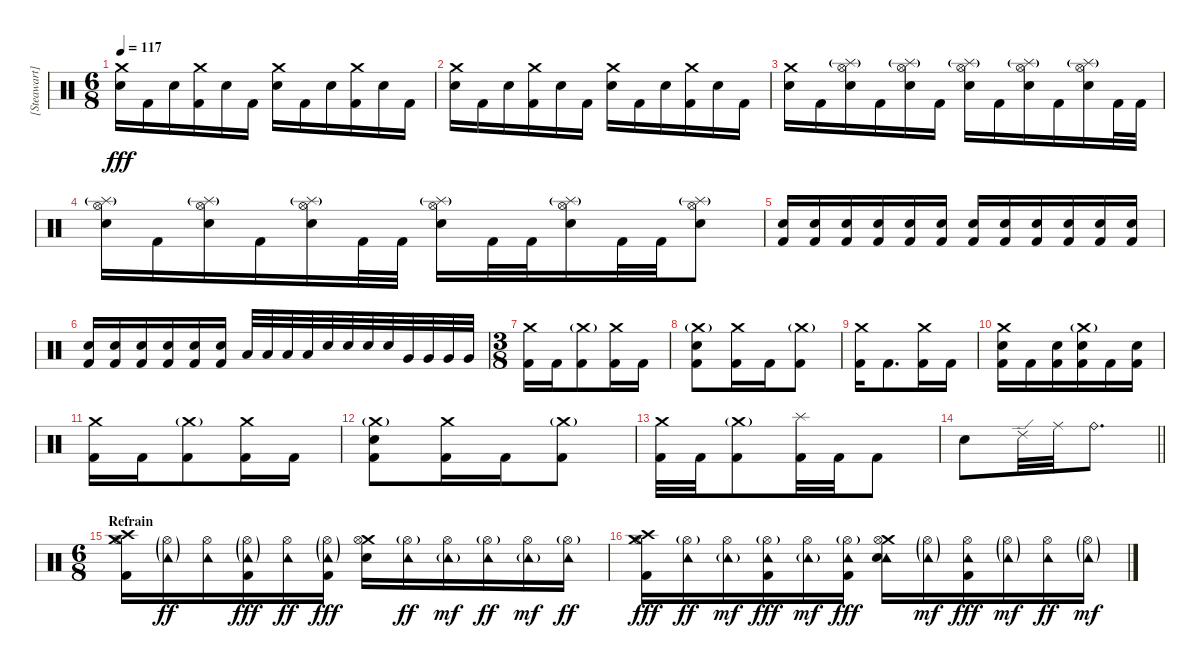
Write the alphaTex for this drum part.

\track ("[Steawart] Drums" "[Steawart]") {instrument percussion}
\staff {score}
\articulation defaults
\ts (6 8)
\tempo 117
\clef neutral
\ks c
("Crash medium (hit)" "Electric Snare (hit)").16{dy fff} "Kick (hit) 2".16 "Electric Snare (hit)".16 ("Crash medium (hit)" "Kick (hit) 2").16 "Electric Snare (hit)".16 "Kick (hit) 2".16 ("Crash medium (hit)" "Electric Snare (hit)").16 "Kick (hit) 2".16 "Electric Snare (hit)".16 ("Crash medium (hit)" "Kick (hit) 2").16 "Electric Snare (hit)".16 "Kick (hit) 2".16 |
("Crash medium (hit)" "Electric Snare (hit)").16 "Kick (hit) 2".16 "Electric Snare (hit)".16 ("Crash medium (hit)" "Kick (hit) 2").16 "Electric Snare (hit)".16 "Kick (hit) 2".16 ("Crash medium (hit)" "Electric Snare (hit)").16 "Kick (hit) 2".16 "Electric Snare (hit)".16 ("Crash medium (hit)" "Kick (hit) 2").16 "Electric Snare (hit)".16 "Kick (hit) 2".16 |
("Crash medium (hit)" "Electric Snare (hit)").16 "Kick (hit) 2".16 ("Hi-Hat (open)" "Splash (hit)"{g} "Electric Snare (hit)").16 "Kick (hit) 2".16 ("Hi-Hat (open)" "Splash (hit)"{g} "Electric Snare (hit)").16 "Kick (hit) 2".16 ("Hi-Hat (open)" "Splash (hit)"{g} "Electric Snare (hit)").16 "Kick (hit) 2".16 ("Hi-Hat (open)" "Splash (hit)"{g} "Electric Snare (hit)").16 "Kick (hit) 2".16 ("Hi-Hat (open)" "Splash (hit)"{g} "Electric Snare (hit)").16 "Kick (hit) 2".32 "Kick (hit) 2".32 |
("Hi-Hat (open)" "Splash (hit)"{g} "Electric Snare (hit)").16 "Kick (hit) 2".16 ("Hi-Hat (open)" "Splash (hit)"{g} "Electric Snare (hit)").16 "Kick (hit) 2".16 ("Hi-Hat (open)" "Splash (hit)"{g} "Electric Snare (hit)").16 "Kick (hit) 2".32 "Kick (hit) 2".32 ("Hi-Hat (open)" "Splash (hit)"{g} "Electric Snare (hit)").16 "Kick (hit) 2".32 "Kick (hit) 2".32 ("Hi-Hat (open)" "Splash (hit)"{g} "Electric Snare (hit)").16 "Kick (hit) 2".32 "Kick (hit) 2".32 ("Hi-Hat (open)" "Splash (hit)"{g} "Electric Snare (hit)").8 |
("Electric Snare (hit)" "Kick (hit) 2").16 ("Electric Snare (hit)" "Kick (hit) 2").16 ("Electric Snare (hit)" "Kick (hit) 2").16 ("Electric Snare (hit)" "Kick (hit) 2").16 ("Electric Snare (hit)" "Kick (hit) 2").16 ("Electric Snare (hit)" "Kick (hit) 2").16 ("Electric Snare (hit)" "Kick (hit) 2").16 ("Electric Snare (hit)" "Kick (hit) 2").16 ("Electric Snare (hit)" "Kick (hit) 2").16 ("Electric Snare (hit)" "Kick (hit) 2").16 ("Electric Snare (hit)" "Kick (hit) 2").16 ("Electric Snare (hit)" "Kick (hit) 2").16 |
("Electric Snare (hit)" "Kick (hit) 2").16 ("Electric Snare (hit)" "Kick (hit) 2").16 ("Electric Snare (hit)" "Kick (hit) 2").16 ("Electric Snare (hit)" "Kick (hit) 2").16 ("Electric Snare (hit)" "Kick (hit) 2").16 ("Electric Snare (hit)" "Kick (hit) 2").16 "Low Tom (hit)".32 "Low Tom (hit)".32 "Low Tom (hit)".32 "Low Tom (hit)".32 "Electric Snare (hit)".32 "Electric Snare (hit)".32 "Electric Snare (hit)".32 "Electric Snare (hit)".32 "Very Low Tom (hit)".32 "Very Low Tom (hit)".32 "Very Low Tom (hit)".32 "Very Low Tom (hit)".32 |
\ts (3 8)
("Crash medium (hit)" "Kick (hit) 2").16 "Kick (hit) 2".16 ("Crash medium (hit)"{g} "Kick (hit) 2").8 ("Crash medium (hit)" "Kick (hit) 2").16 "Kick (hit) 2".16 |
("Crash medium (hit)"{g} "Electric Snare (hit)" "Kick (hit) 2").8 ("Crash medium (hit)" "Kick (hit) 2").16 "Kick (hit) 2".16 ("Crash medium (hit)"{g} "Kick (hit) 2").8 |
("Crash medium (hit)" "Kick (hit) 2").16 "Kick (hit) 2".8{d} ("Crash medium (hit)" "Kick (hit) 2").16 "Kick (hit) 2".16 |
("Crash medium (hit)" "Electric Snare (hit)" "Kick (hit) 2").16 "Kick (hit) 2".16 ("Electric Snare (hit)" "Kick (hit) 2").16 ("Crash medium (hit)"{g} "Electric Snare (hit)" "Kick (hit) 2").16 "Kick (hit) 2".16 ("Electric Snare (hit)" "Kick (hit) 2").16 |
("Crash medium (hit)" "Kick (hit) 2").16 "Kick (hit) 2".16 ("Crash medium (hit)"{g} "Kick (hit) 2").8 ("Crash medium (hit)" "Kick (hit) 2").16 "Kick (hit) 2".16 |
("Crash medium (hit)"{g} "Electric Snare (hit)" "Kick (hit) 2").8 ("Crash medium (hit)" "Kick (hit) 2").16 "Kick (hit) 2".16 ("Crash medium (hit)"{g} "Kick (hit) 2").8 |
("Crash medium (hit)" "Kick (hit) 2").32 "Kick (hit) 2".32 ("Crash medium (hit)"{g} "Kick (hit) 2").8 ("Splash (hit)" "Kick (hit) 2").32 "Kick (hit) 2".32 "Kick (hit) 2".8 |
\barLineRight lightlight "Electric Snare (hit)".8 "Ride (edge) 2".32 "Ride (middle)".32 "Ride (bell)".8{d}
|
\ts (6 8)
\section ("" "Refrain ")
("Crash medium (hit)" "Hi-Hat (open)" "Crash high (hit)" "Kick (hit) 2").16 ("Hi-Hat (open)"{g} "Tambourine (hit)"{g}).16{dy ff} ("Hi-Hat (open)" "Tambourine (hit)").16 ("Hi-Hat (open)"{g} "Tambourine (hit)"{g} "Kick (hit) 2").16{dy fff} ("Hi-Hat (open)" "Tambourine (hit)").16{dy ff} ("Hi-Hat (open)"{g} "Tambourine (hit)"{g} "Kick (hit) 2").16{dy fff} ("Crash medium (hit)" "Hi-Hat (open)" "Electric Snare (hit)").16 ("Hi-Hat (open)"{g} "Tambourine (hit)").16{dy ff} ("Hi-Hat (open)" "Tambourine (hit)"{g}).16{dy mf} ("Hi-Hat (open)"{g} "Tambourine (hit)").16{dy ff} ("Hi-Hat (open)" "Tambourine (hit)"{g}).16{dy mf} ("Hi-Hat (open)"{g} "Tambourine (hit)").16{dy ff} |
("Crash medium (hit)" "Hi-Hat (open)" "Crash high (hit)" "Kick (hit) 2").16{dy fff} ("Hi-Hat (open)"{g} "Tambourine (hit)").16{dy ff} ("Hi-Hat (open)" "Tambourine (hit)"{g}).16{dy mf} ("Hi-Hat (open)"{g} "Tambourine (hit)" "Kick (hit) 2").16{dy fff} ("Hi-Hat (open)" "Tambourine (hit)"{g}).16{dy mf} ("Hi-Hat (open)"{g} "Tambourine (hit)" "Kick (hit) 2").16{dy fff} ("Crash medium (hit)" "Hi-Hat (open)" "Tambourine (hit)" "Electric Snare (hit)").16 ("Hi-Hat (open)"{g} "Tambourine (hit)"{g}).16{dy mf} ("Hi-Hat (open)" "Tambourine (hit)" "Kick (hit) 2").16{dy fff} ("Hi-Hat (open)"{g} "Tambourine (hit)"{g}).16{dy mf} ("Hi-Hat (open)" "Tambourine (hit)").16{dy ff} ("Hi-Hat (open)"{g} "Tambourine (hit)"{g}).16{dy mf}
